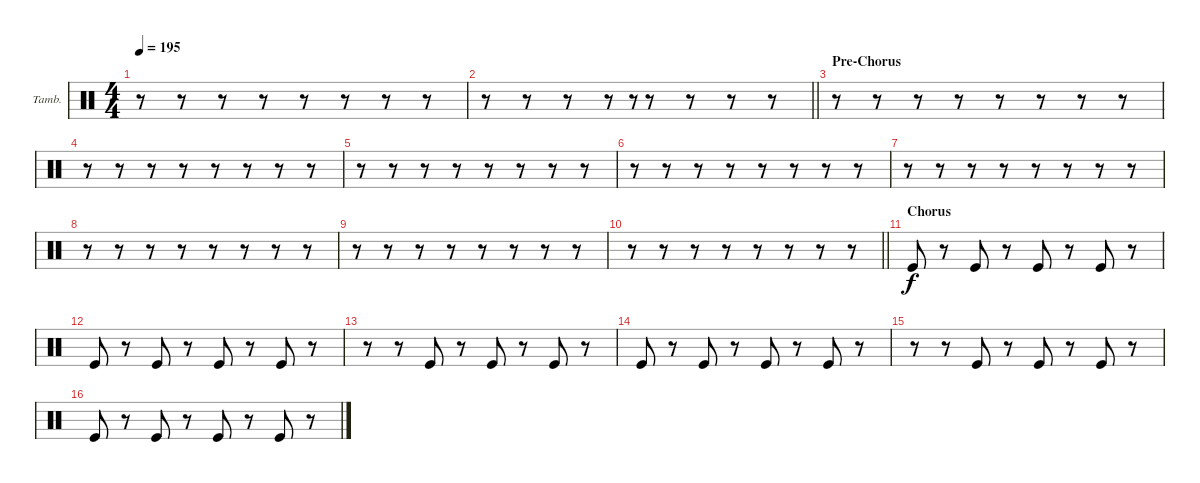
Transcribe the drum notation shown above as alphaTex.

\bracketExtendMode groupsimilarinstruments
\firstSystemTrackNameOrientation horizontal
\otherSystemsTrackNameOrientation horizontal
\track ("Tambourine" "Tamb.") {instrument percussion}
\staff {score}
\articulation defaults
\ts (4 4)
\tempo 195
\clef neutral
\ks c
r.8{dy f} r.8 r.8 r.8 r.8 r.8 r.8 r.8 |
\barLineRight lightlight
r.8 r.8 r.8 r.8 r.8{gr} r.8 r.8 r.8 r.8 |
\section ("" "Pre-Chorus")
r.8 r.8 r.8 r.8 r.8 r.8 r.8 r.8 |
r.8 r.8 r.8 r.8 r.8 r.8 r.8 r.8 |
r.8 r.8 r.8 r.8 r.8 r.8 r.8 r.8 |
r.8 r.8 r.8 r.8 r.8 r.8 r.8 r.8 |
r.8 r.8 r.8 r.8 r.8 r.8 r.8 r.8 |
r.8 r.8 r.8 r.8 r.8 r.8 r.8 r.8 |
r.8 r.8 r.8 r.8 r.8 r.8 r.8 r.8 |
\barLineRight lightlight
r.8 r.8 r.8 r.8 r.8 r.8 r.8 r.8 |
\section ("" "Chorus")
"Kick (hit)".8 r.8 "Kick (hit)".8 r.8 "Kick (hit)".8 r.8 "Kick (hit)".8 r.8 |
"Kick (hit)".8 r.8 "Kick (hit)".8 r.8 "Kick (hit)".8 r.8 "Kick (hit)".8 r.8 |
r.8 r.8 "Kick (hit)".8 r.8 "Kick (hit)".8 r.8 "Kick (hit)".8 r.8 |
"Kick (hit)".8 r.8 "Kick (hit)".8 r.8 "Kick (hit)".8 r.8 "Kick (hit)".8 r.8 |
r.8 r.8 "Kick (hit)".8 r.8 "Kick (hit)".8 r.8 "Kick (hit)".8 r.8 |
"Kick (hit)".8 r.8 "Kick (hit)".8 r.8 "Kick (hit)".8 r.8 "Kick (hit)".8 r.8
